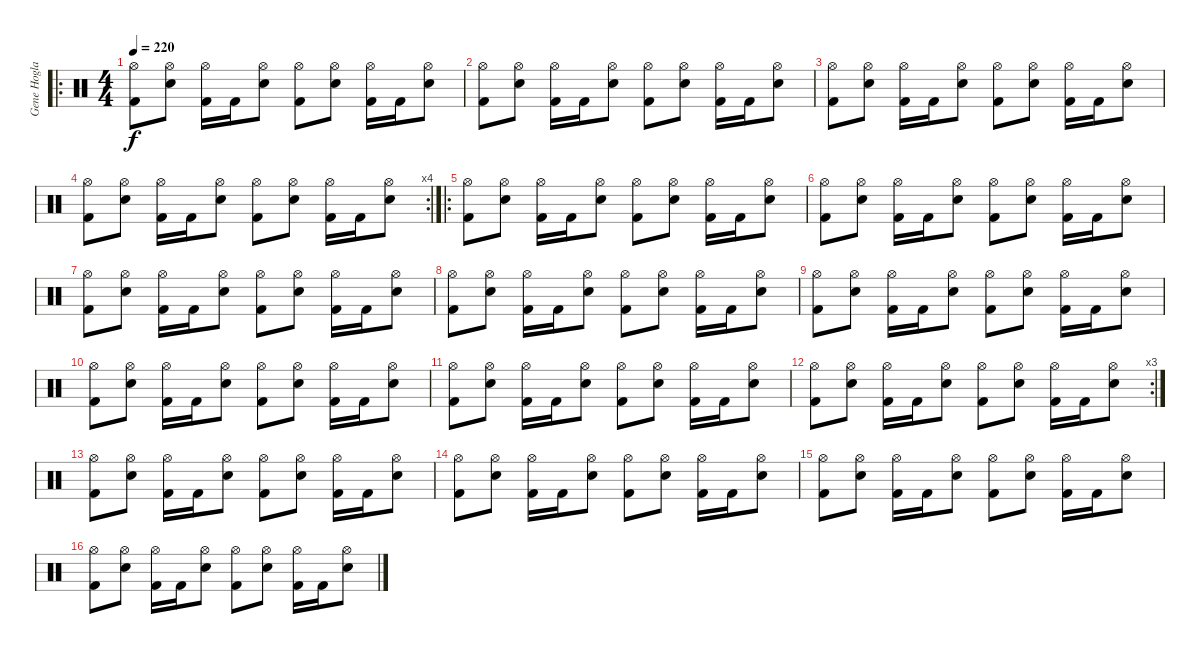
\track ("Gene Hoglan" "Gene Hogla") {instrument percussion}
\staff {score}
\articulation defaults
\ro
\ts (4 4)
\tempo 220
\clef neutral
\ks c
("Hi-Hat (open)" "Kick (hit) 2").8{dy f} ("Hi-Hat (open)" "Electric Snare (hit)").8 ("Hi-Hat (open)" "Kick (hit) 2").16 "Kick (hit) 2".16 ("Hi-Hat (open)" "Electric Snare (hit)").8 ("Hi-Hat (open)" "Kick (hit) 2").8 ("Hi-Hat (open)" "Electric Snare (hit)").8 ("Hi-Hat (open)" "Kick (hit) 2").16 "Kick (hit) 2".16 ("Hi-Hat (open)" "Electric Snare (hit)").8 |
("Hi-Hat (open)" "Kick (hit) 2").8 ("Hi-Hat (open)" "Electric Snare (hit)").8 ("Hi-Hat (open)" "Kick (hit) 2").16 "Kick (hit) 2".16 ("Hi-Hat (open)" "Electric Snare (hit)").8 ("Hi-Hat (open)" "Kick (hit) 2").8 ("Hi-Hat (open)" "Electric Snare (hit)").8 ("Hi-Hat (open)" "Kick (hit) 2").16 "Kick (hit) 2".16 ("Hi-Hat (open)" "Electric Snare (hit)").8 |
("Hi-Hat (open)" "Kick (hit) 2").8 ("Hi-Hat (open)" "Electric Snare (hit)").8 ("Hi-Hat (open)" "Kick (hit) 2").16 "Kick (hit) 2".16 ("Hi-Hat (open)" "Electric Snare (hit)").8 ("Hi-Hat (open)" "Kick (hit) 2").8 ("Hi-Hat (open)" "Electric Snare (hit)").8 ("Hi-Hat (open)" "Kick (hit) 2").16 "Kick (hit) 2".16 ("Hi-Hat (open)" "Electric Snare (hit)").8 |
\rc 4
("Hi-Hat (open)" "Kick (hit) 2").8 ("Hi-Hat (open)" "Electric Snare (hit)").8 ("Hi-Hat (open)" "Kick (hit) 2").16 "Kick (hit) 2".16 ("Hi-Hat (open)" "Electric Snare (hit)").8 ("Hi-Hat (open)" "Kick (hit) 2").8 ("Hi-Hat (open)" "Electric Snare (hit)").8 ("Hi-Hat (open)" "Kick (hit) 2").16 "Kick (hit) 2".16 ("Hi-Hat (open)" "Electric Snare (hit)").8 |
\ro
("Hi-Hat (open)" "Kick (hit) 2").8 ("Hi-Hat (open)" "Electric Snare (hit)").8 ("Hi-Hat (open)" "Kick (hit) 2").16 "Kick (hit) 2".16 ("Hi-Hat (open)" "Electric Snare (hit)").8 ("Hi-Hat (open)" "Kick (hit) 2").8 ("Hi-Hat (open)" "Electric Snare (hit)").8 ("Hi-Hat (open)" "Kick (hit) 2").16 "Kick (hit) 2".16 ("Hi-Hat (open)" "Electric Snare (hit)").8 |
("Hi-Hat (open)" "Kick (hit) 2").8 ("Hi-Hat (open)" "Electric Snare (hit)").8 ("Hi-Hat (open)" "Kick (hit) 2").16 "Kick (hit) 2".16 ("Hi-Hat (open)" "Electric Snare (hit)").8 ("Hi-Hat (open)" "Kick (hit) 2").8 ("Hi-Hat (open)" "Electric Snare (hit)").8 ("Hi-Hat (open)" "Kick (hit) 2").16 "Kick (hit) 2".16 ("Hi-Hat (open)" "Electric Snare (hit)").8 |
("Hi-Hat (open)" "Kick (hit) 2").8 ("Hi-Hat (open)" "Electric Snare (hit)").8 ("Hi-Hat (open)" "Kick (hit) 2").16 "Kick (hit) 2".16 ("Hi-Hat (open)" "Electric Snare (hit)").8 ("Hi-Hat (open)" "Kick (hit) 2").8 ("Hi-Hat (open)" "Electric Snare (hit)").8 ("Hi-Hat (open)" "Kick (hit) 2").16 "Kick (hit) 2".16 ("Hi-Hat (open)" "Electric Snare (hit)").8 |
("Hi-Hat (open)" "Kick (hit) 2").8 ("Hi-Hat (open)" "Electric Snare (hit)").8 ("Hi-Hat (open)" "Kick (hit) 2").16 "Kick (hit) 2".16 ("Hi-Hat (open)" "Electric Snare (hit)").8 ("Hi-Hat (open)" "Kick (hit) 2").8 ("Hi-Hat (open)" "Electric Snare (hit)").8 ("Hi-Hat (open)" "Kick (hit) 2").16 "Kick (hit) 2".16 ("Hi-Hat (open)" "Electric Snare (hit)").8 |
("Hi-Hat (open)" "Kick (hit) 2").8 ("Hi-Hat (open)" "Electric Snare (hit)").8 ("Hi-Hat (open)" "Kick (hit) 2").16 "Kick (hit) 2".16 ("Hi-Hat (open)" "Electric Snare (hit)").8 ("Hi-Hat (open)" "Kick (hit) 2").8 ("Hi-Hat (open)" "Electric Snare (hit)").8 ("Hi-Hat (open)" "Kick (hit) 2").16 "Kick (hit) 2".16 ("Hi-Hat (open)" "Electric Snare (hit)").8 |
("Hi-Hat (open)" "Kick (hit) 2").8 ("Hi-Hat (open)" "Electric Snare (hit)").8 ("Hi-Hat (open)" "Kick (hit) 2").16 "Kick (hit) 2".16 ("Hi-Hat (open)" "Electric Snare (hit)").8 ("Hi-Hat (open)" "Kick (hit) 2").8 ("Hi-Hat (open)" "Electric Snare (hit)").8 ("Hi-Hat (open)" "Kick (hit) 2").16 "Kick (hit) 2".16 ("Hi-Hat (open)" "Electric Snare (hit)").8 |
("Hi-Hat (open)" "Kick (hit) 2").8 ("Hi-Hat (open)" "Electric Snare (hit)").8 ("Hi-Hat (open)" "Kick (hit) 2").16 "Kick (hit) 2".16 ("Hi-Hat (open)" "Electric Snare (hit)").8 ("Hi-Hat (open)" "Kick (hit) 2").8 ("Hi-Hat (open)" "Electric Snare (hit)").8 ("Hi-Hat (open)" "Kick (hit) 2").16 "Kick (hit) 2".16 ("Hi-Hat (open)" "Electric Snare (hit)").8 |
\rc 3
("Hi-Hat (open)" "Kick (hit) 2").8 ("Hi-Hat (open)" "Electric Snare (hit)").8 ("Hi-Hat (open)" "Kick (hit) 2").16 "Kick (hit) 2".16 ("Hi-Hat (open)" "Electric Snare (hit)").8 ("Hi-Hat (open)" "Kick (hit) 2").8 ("Hi-Hat (open)" "Electric Snare (hit)").8 ("Hi-Hat (open)" "Kick (hit) 2").16 "Kick (hit) 2".16 ("Hi-Hat (open)" "Electric Snare (hit)").8 |
("Hi-Hat (open)" "Kick (hit) 2").8 ("Hi-Hat (open)" "Electric Snare (hit)").8 ("Hi-Hat (open)" "Kick (hit) 2").16 "Kick (hit) 2".16 ("Hi-Hat (open)" "Electric Snare (hit)").8 ("Hi-Hat (open)" "Kick (hit) 2").8 ("Hi-Hat (open)" "Electric Snare (hit)").8 ("Hi-Hat (open)" "Kick (hit) 2").16 "Kick (hit) 2".16 ("Hi-Hat (open)" "Electric Snare (hit)").8 |
("Hi-Hat (open)" "Kick (hit) 2").8 ("Hi-Hat (open)" "Electric Snare (hit)").8 ("Hi-Hat (open)" "Kick (hit) 2").16 "Kick (hit) 2".16 ("Hi-Hat (open)" "Electric Snare (hit)").8 ("Hi-Hat (open)" "Kick (hit) 2").8 ("Hi-Hat (open)" "Electric Snare (hit)").8 ("Hi-Hat (open)" "Kick (hit) 2").16 "Kick (hit) 2".16 ("Hi-Hat (open)" "Electric Snare (hit)").8 |
("Hi-Hat (open)" "Kick (hit) 2").8 ("Hi-Hat (open)" "Electric Snare (hit)").8 ("Hi-Hat (open)" "Kick (hit) 2").16 "Kick (hit) 2".16 ("Hi-Hat (open)" "Electric Snare (hit)").8 ("Hi-Hat (open)" "Kick (hit) 2").8 ("Hi-Hat (open)" "Electric Snare (hit)").8 ("Hi-Hat (open)" "Kick (hit) 2").16 "Kick (hit) 2".16 ("Hi-Hat (open)" "Electric Snare (hit)").8 |
("Hi-Hat (open)" "Kick (hit) 2").8 ("Hi-Hat (open)" "Electric Snare (hit)").8 ("Hi-Hat (open)" "Kick (hit) 2").16 "Kick (hit) 2".16 ("Hi-Hat (open)" "Electric Snare (hit)").8 ("Hi-Hat (open)" "Kick (hit) 2").8 ("Hi-Hat (open)" "Electric Snare (hit)").8 ("Hi-Hat (open)" "Kick (hit) 2").16 "Kick (hit) 2".16 ("Hi-Hat (open)" "Electric Snare (hit)").8
